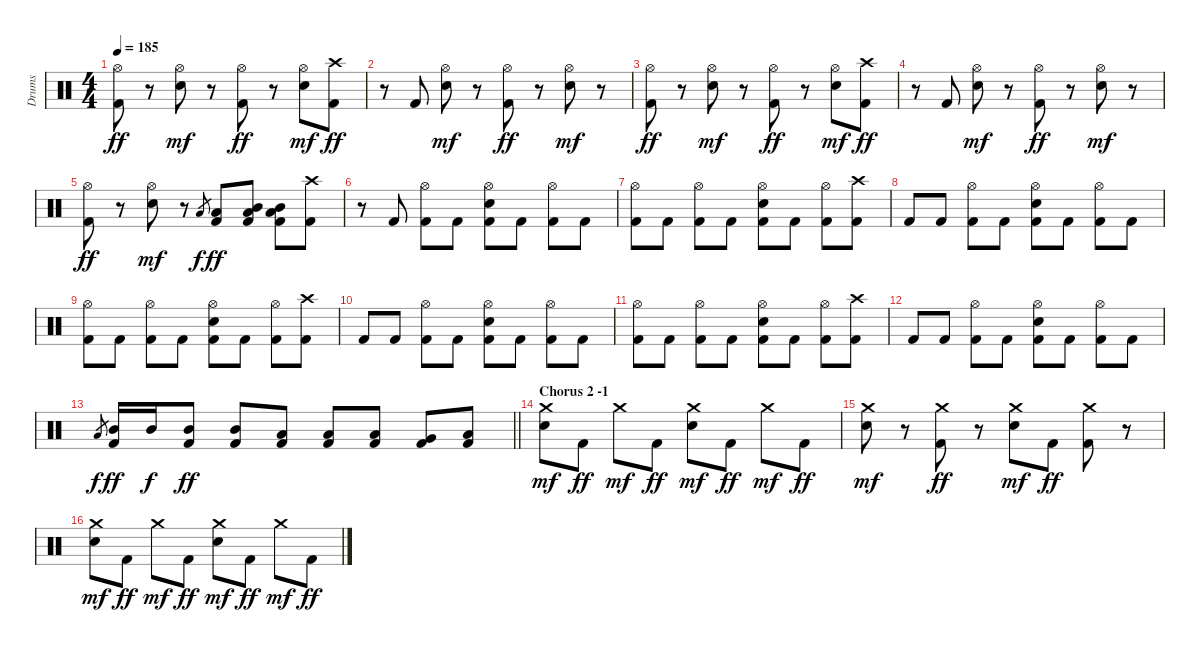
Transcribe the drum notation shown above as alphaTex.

\track ("Drums" "Drums") {instrument percussion}
\staff {score}
\articulation defaults
\ts (4 4)
\tempo 185
\clef neutral
\ks c
("Hi-Hat (open)" "Kick (hit) 2").8{dy ff} r.8 ("Hi-Hat (open)" "Electric Snare (hit)").8{dy mf} r.8 ("Hi-Hat (open)" "Kick (hit) 2").8{dy ff} r.8 ("Hi-Hat (open)" "Electric Snare (hit)").8{dy mf} ("Crash high (hit)" "Kick (hit) 2").8{dy ff} |
r.8 "Kick (hit) 2".8 ("Hi-Hat (open)" "Electric Snare (hit)").8{dy mf} r.8 ("Hi-Hat (open)" "Kick (hit) 2").8{dy ff} r.8 ("Hi-Hat (open)" "Electric Snare (hit)").8{dy mf} r.8 |
("Hi-Hat (open)" "Kick (hit) 2").8{dy ff} r.8 ("Hi-Hat (open)" "Electric Snare (hit)").8{dy mf} r.8 ("Hi-Hat (open)" "Kick (hit) 2").8{dy ff} r.8 ("Hi-Hat (open)" "Electric Snare (hit)").8{dy mf} ("Crash high (hit)" "Kick (hit) 2").8{dy ff} |
r.8 "Kick (hit) 2".8 ("Hi-Hat (open)" "Electric Snare (hit)").8{dy mf} r.8 ("Hi-Hat (open)" "Kick (hit) 2").8{dy ff} r.8 ("Hi-Hat (open)" "Electric Snare (hit)").8{dy mf} r.8 |
("Hi-Hat (open)" "Kick (hit) 2").8{dy ff} r.8 ("Hi-Hat (open)" "Electric Snare (hit)").8{dy mf} r.8 "Low Tom (hit)".8{gr dy f} ("Low Tom (hit)" "Kick (hit) 2").8{dy ff} ("Mid Tom (hit)" "Low Tom (hit)" "Kick (hit) 2").8 ("Mid Tom (hit)" "Low Tom (hit)" "Kick (hit) 2").8 ("Crash high (hit)" "Kick (hit) 2").8 |
r.8 "Kick (hit) 2".8 ("Hi-Hat (open)" "Kick (hit) 2").8 "Kick (hit) 2".8 ("Hi-Hat (open)" "Electric Snare (hit)" "Kick (hit) 2").8 "Kick (hit) 2".8 ("Hi-Hat (open)" "Kick (hit) 2").8 "Kick (hit) 2".8 |
("Hi-Hat (open)" "Kick (hit) 2").8 "Kick (hit) 2".8 ("Hi-Hat (open)" "Kick (hit) 2").8 "Kick (hit) 2".8 ("Hi-Hat (open)" "Electric Snare (hit)" "Kick (hit) 2").8 "Kick (hit) 2".8 ("Hi-Hat (open)" "Kick (hit) 2").8 ("Crash high (hit)" "Kick (hit) 2").8 |
"Kick (hit) 2".8 "Kick (hit) 2".8 ("Hi-Hat (open)" "Kick (hit) 2").8 "Kick (hit) 2".8 ("Hi-Hat (open)" "Electric Snare (hit)" "Kick (hit) 2").8 "Kick (hit) 2".8 ("Hi-Hat (open)" "Kick (hit) 2").8 "Kick (hit) 2".8 |
("Hi-Hat (open)" "Kick (hit) 2").8 "Kick (hit) 2".8 ("Hi-Hat (open)" "Kick (hit) 2").8 "Kick (hit) 2".8 ("Hi-Hat (open)" "Electric Snare (hit)" "Kick (hit) 2").8 "Kick (hit) 2".8 ("Hi-Hat (open)" "Kick (hit) 2").8 ("Crash high (hit)" "Kick (hit) 2").8 |
"Kick (hit) 2".8 "Kick (hit) 2".8 ("Hi-Hat (open)" "Kick (hit) 2").8 "Kick (hit) 2".8 ("Hi-Hat (open)" "Electric Snare (hit)" "Kick (hit) 2").8 "Kick (hit) 2".8 ("Hi-Hat (open)" "Kick (hit) 2").8 "Kick (hit) 2".8 |
("Hi-Hat (open)" "Kick (hit) 2").8 "Kick (hit) 2".8 ("Hi-Hat (open)" "Kick (hit) 2").8 "Kick (hit) 2".8 ("Hi-Hat (open)" "Electric Snare (hit)" "Kick (hit) 2").8 "Kick (hit) 2".8 ("Hi-Hat (open)" "Kick (hit) 2").8 ("Crash high (hit)" "Kick (hit) 2").8 |
"Kick (hit) 2".8 "Kick (hit) 2".8 ("Hi-Hat (open)" "Kick (hit) 2").8 "Kick (hit) 2".8 ("Hi-Hat (open)" "Electric Snare (hit)" "Kick (hit) 2").8 "Kick (hit) 2".8 ("Hi-Hat (open)" "Kick (hit) 2").8 "Kick (hit) 2".8 |
\barLineRight lightlight "Low Tom (hit)".8{gr dy f}
("Mid Tom (hit)" "Kick (hit) 2").16{dy ff} "Mid Tom (hit)".16{dy f} ("Mid Tom (hit)" "Kick (hit) 2").8{dy ff} ("Mid Tom (hit)" "Kick (hit) 2").8 ("Low Tom (hit)" "Kick (hit) 2").8 ("Low Tom (hit)" "Kick (hit) 2").8 ("Low Tom (hit)" "Kick (hit) 2").8 ("Very Low Tom (hit)" "Kick (hit) 2").8 ("Low Floor Tom (hit)" "Kick (hit) 2").8 |
\section ("" "Chorus 2 -1")
("Crash medium (hit)" "Electric Snare (hit)").8{dy mf} "Kick (hit) 2".8{dy ff} "Crash medium (hit)".8{dy mf} "Kick (hit) 2".8{dy ff} ("Crash medium (hit)" "Electric Snare (hit)").8{dy mf} "Kick (hit) 2".8{dy ff} "Crash medium (hit)".8{dy mf} "Kick (hit) 2".8{dy ff} |
("Crash medium (hit)" "Electric Snare (hit)").8{dy mf} r.8 ("Crash medium (hit)" "Kick (hit) 2").8{dy ff} r.8 ("Crash medium (hit)" "Electric Snare (hit)").8{dy mf} "Kick (hit) 2".8{dy ff} ("Crash medium (hit)" "Kick (hit) 2").8 r.8 |
("Crash medium (hit)" "Electric Snare (hit)").8{dy mf} "Kick (hit) 2".8{dy ff} "Crash medium (hit)".8{dy mf} "Kick (hit) 2".8{dy ff} ("Crash medium (hit)" "Electric Snare (hit)").8{dy mf} "Kick (hit) 2".8{dy ff} "Crash medium (hit)".8{dy mf} "Kick (hit) 2".8{dy ff}
